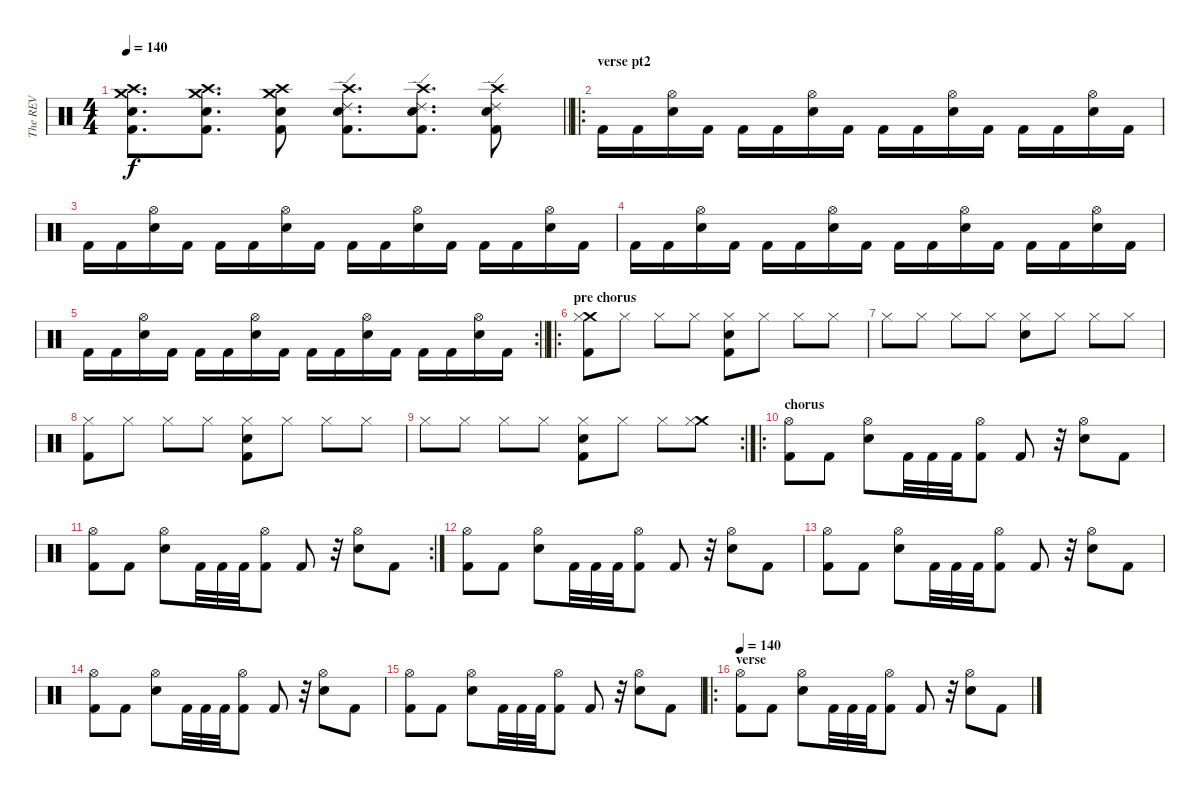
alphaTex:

\track ("The REV" "The REV") {instrument percussion}
\staff {score}
\articulation defaults
\ts (4 4)
\tempo 140
\clef neutral
\barLineRight lightlight
\ks c
("Crash high (hit)" "Crash medium (hit)" "Electric Snare (hit)" "Kick (hit) 2").8{d dy f} ("Crash high (hit)" "Crash medium (hit)" "Electric Snare (hit)" "Kick (hit) 2").8{d} ("Crash high (hit)" "Crash medium (hit)" "Electric Snare (hit)" "Kick (hit) 2").8 ("Crash high (hit)" "Ride (edge) 2" "Electric Snare (hit)" "Kick (hit) 2").8{d} ("Crash high (hit)" "Ride (edge) 2" "Electric Snare (hit)" "Kick (hit) 2").8{d} ("Crash high (hit)" "Ride (edge) 2" "Electric Snare (hit)" "Kick (hit) 2").8 |
\ro
\section ("" "verse pt2")
"Kick (hit) 2".16 "Kick (hit) 2".16 ("Hi-Hat (open)" "Electric Snare (hit)").16 "Kick (hit) 2".16 "Kick (hit) 2".16 "Kick (hit) 2".16 ("Hi-Hat (open)" "Electric Snare (hit)").16 "Kick (hit) 2".16 "Kick (hit) 2".16 "Kick (hit) 2".16 ("Hi-Hat (open)" "Electric Snare (hit)").16 "Kick (hit) 2".16 "Kick (hit) 2".16 "Kick (hit) 2".16 ("Hi-Hat (open)" "Electric Snare (hit)").16 "Kick (hit) 2".16 |
"Kick (hit) 2".16 "Kick (hit) 2".16 ("Hi-Hat (open)" "Electric Snare (hit)").16 "Kick (hit) 2".16 "Kick (hit) 2".16 "Kick (hit) 2".16 ("Hi-Hat (open)" "Electric Snare (hit)").16 "Kick (hit) 2".16 "Kick (hit) 2".16 "Kick (hit) 2".16 ("Hi-Hat (open)" "Electric Snare (hit)").16 "Kick (hit) 2".16 "Kick (hit) 2".16 "Kick (hit) 2".16 ("Hi-Hat (open)" "Electric Snare (hit)").16 "Kick (hit) 2".16 |
"Kick (hit) 2".16 "Kick (hit) 2".16 ("Hi-Hat (open)" "Electric Snare (hit)").16 "Kick (hit) 2".16 "Kick (hit) 2".16 "Kick (hit) 2".16 ("Hi-Hat (open)" "Electric Snare (hit)").16 "Kick (hit) 2".16 "Kick (hit) 2".16 "Kick (hit) 2".16 ("Hi-Hat (open)" "Electric Snare (hit)").16 "Kick (hit) 2".16 "Kick (hit) 2".16 "Kick (hit) 2".16 ("Hi-Hat (open)" "Electric Snare (hit)").16 "Kick (hit) 2".16 |
\rc 2
\barLineRight lightlight "Kick (hit) 2".16 "Kick (hit) 2".16
("Hi-Hat (open)" "Electric Snare (hit)").16 "Kick (hit) 2".16 "Kick (hit) 2".16 "Kick (hit) 2".16 ("Hi-Hat (open)" "Electric Snare (hit)").16 "Kick (hit) 2".16 "Kick (hit) 2".16 "Kick (hit) 2".16 ("Hi-Hat (open)" "Electric Snare (hit)").16 "Kick (hit) 2".16 "Kick (hit) 2".16 "Kick (hit) 2".16 ("Hi-Hat (open)" "Electric Snare (hit)").16 "Kick (hit) 2".16 |
\ro
\section ("" "pre chorus")
("Crash medium (hit)" "Hi-Hat (closed)" "Kick (hit) 2").8 "Hi-Hat (closed)".8 "Hi-Hat (closed)".8 "Hi-Hat (closed)".8 ("Hi-Hat (closed)" "Electric Snare (hit)" "Kick (hit) 2").8 "Hi-Hat (closed)".8 "Hi-Hat (closed)".8 "Hi-Hat (closed)".8 |
"Hi-Hat (closed)".8 "Hi-Hat (closed)".8 "Hi-Hat (closed)".8 "Hi-Hat (closed)".8 ("Hi-Hat (closed)" "Electric Snare (hit)").8 "Hi-Hat (closed)".8 "Hi-Hat (closed)".8 "Hi-Hat (closed)".8 |
("Hi-Hat (closed)" "Kick (hit) 2").8 "Hi-Hat (closed)".8 "Hi-Hat (closed)".8 "Hi-Hat (closed)".8 ("Hi-Hat (closed)" "Electric Snare (hit)" "Kick (hit) 2").8 "Hi-Hat (closed)".8 "Hi-Hat (closed)".8 "Hi-Hat (closed)".8 |
\rc 2 "Hi-Hat (closed)".8 "Hi-Hat (closed)".8 "Hi-Hat (closed)".8 "Hi-Hat (closed)".8
("Hi-Hat (closed)" "Electric Snare (hit)" "Kick (hit) 2").8 "Hi-Hat (closed)".8 "Hi-Hat (closed)".8 ("Crash medium (hit)" "Hi-Hat (closed)").8 |
\ro
\section ("" "chorus")
("Hi-Hat (open)" "Kick (hit) 2").8 "Kick (hit) 2".8 ("Hi-Hat (open)" "Electric Snare (hit)").8 "Kick (hit) 2".32 "Kick (hit) 2".32 "Kick (hit) 2".32 ("Hi-Hat (open)" "Kick (hit) 2").8 "Kick (hit) 2".8 r.32 ("Hi-Hat (open)" "Electric Snare (hit)").8 "Kick (hit) 2".8 |
\rc 2
("Hi-Hat (open)" "Kick (hit) 2").8 "Kick (hit) 2".8 ("Hi-Hat (open)" "Electric Snare (hit)").8 "Kick (hit) 2".32 "Kick (hit) 2".32 "Kick (hit) 2".32 ("Hi-Hat (open)" "Kick (hit) 2").8 "Kick (hit) 2".8 r.32 ("Hi-Hat (open)" "Electric Snare (hit)").8 "Kick (hit) 2".8 |
("Hi-Hat (open)" "Kick (hit) 2").8 "Kick (hit) 2".8 ("Hi-Hat (open)" "Electric Snare (hit)").8 "Kick (hit) 2".32 "Kick (hit) 2".32 "Kick (hit) 2".32 ("Hi-Hat (open)" "Kick (hit) 2").8 "Kick (hit) 2".8 r.32 ("Hi-Hat (open)" "Electric Snare (hit)").8 "Kick (hit) 2".8 |
("Hi-Hat (open)" "Kick (hit) 2").8 "Kick (hit) 2".8 ("Hi-Hat (open)" "Electric Snare (hit)").8 "Kick (hit) 2".32 "Kick (hit) 2".32 "Kick (hit) 2".32 ("Hi-Hat (open)" "Kick (hit) 2").8 "Kick (hit) 2".8 r.32 ("Hi-Hat (open)" "Electric Snare (hit)").8 "Kick (hit) 2".8 |
("Hi-Hat (open)" "Kick (hit) 2").8 "Kick (hit) 2".8 ("Hi-Hat (open)" "Electric Snare (hit)").8 "Kick (hit) 2".32 "Kick (hit) 2".32 "Kick (hit) 2".32 ("Hi-Hat (open)" "Kick (hit) 2").8 "Kick (hit) 2".8 r.32 ("Hi-Hat (open)" "Electric Snare (hit)").8 "Kick (hit) 2".8 |
("Hi-Hat (open)" "Kick (hit) 2").8 "Kick (hit) 2".8 ("Hi-Hat (open)" "Electric Snare (hit)").8 "Kick (hit) 2".32 "Kick (hit) 2".32 "Kick (hit) 2".32 ("Hi-Hat (open)" "Kick (hit) 2").8 "Kick (hit) 2".8 r.32 ("Hi-Hat (open)" "Electric Snare (hit)").8 "Kick (hit) 2".8 |
\ro
\section ("" "verse")
\tempo 140
("Hi-Hat (open)" "Kick (hit) 2").8 "Kick (hit) 2".8 ("Hi-Hat (open)" "Electric Snare (hit)").8 "Kick (hit) 2".32 "Kick (hit) 2".32 "Kick (hit) 2".32 ("Hi-Hat (open)" "Kick (hit) 2").8 "Kick (hit) 2".8 r.32 ("Hi-Hat (open)" "Electric Snare (hit)").8 "Kick (hit) 2".8
